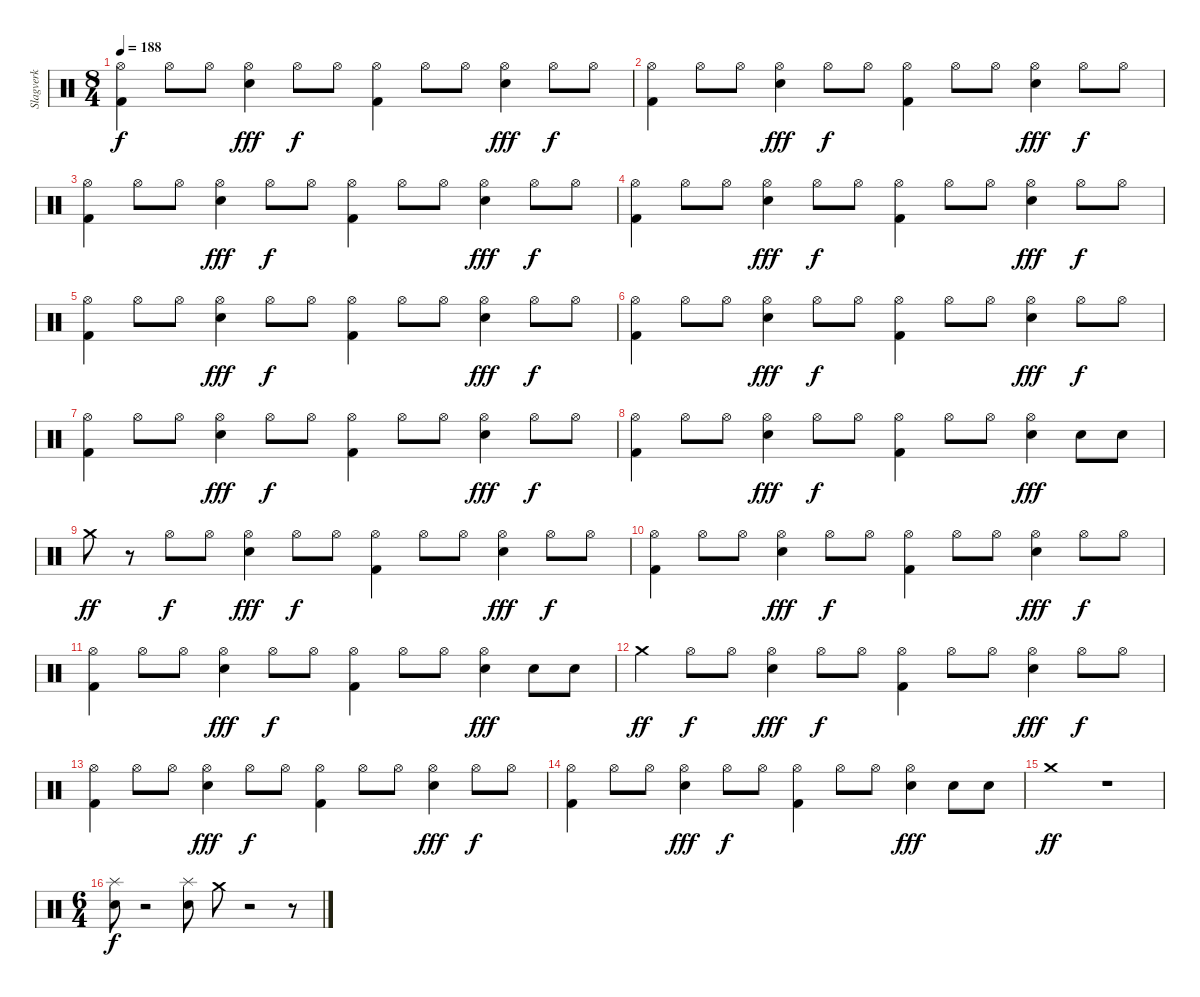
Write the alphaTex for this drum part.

\track ("Slagverk" "Slagverk") {instrument percussion}
\staff {score}
\articulation defaults
\ts (8 4)
\tempo 188
\clef neutral
\ks c
("Hi-Hat (open)" "Kick (hit) 2").4{dy f} "Hi-Hat (open)".8 "Hi-Hat (open)".8 ("Hi-Hat (open)" "Snare (hit) 2").4{dy fff} "Hi-Hat (open)".8{dy f} "Hi-Hat (open)".8 ("Hi-Hat (open)" "Kick (hit) 2").4 "Hi-Hat (open)".8 "Hi-Hat (open)".8 ("Hi-Hat (open)" "Snare (hit) 2").4{dy fff} "Hi-Hat (open)".8{dy f} "Hi-Hat (open)".8 |
("Hi-Hat (open)" "Kick (hit) 2").4 "Hi-Hat (open)".8 "Hi-Hat (open)".8 ("Hi-Hat (open)" "Snare (hit) 2").4{dy fff} "Hi-Hat (open)".8{dy f} "Hi-Hat (open)".8 ("Hi-Hat (open)" "Kick (hit) 2").4 "Hi-Hat (open)".8 "Hi-Hat (open)".8 ("Hi-Hat (open)" "Snare (hit) 2").4{dy fff} "Hi-Hat (open)".8{dy f} "Hi-Hat (open)".8 |
("Hi-Hat (open)" "Kick (hit) 2").4 "Hi-Hat (open)".8 "Hi-Hat (open)".8 ("Hi-Hat (open)" "Snare (hit) 2").4{dy fff} "Hi-Hat (open)".8{dy f} "Hi-Hat (open)".8 ("Hi-Hat (open)" "Kick (hit) 2").4 "Hi-Hat (open)".8 "Hi-Hat (open)".8 ("Hi-Hat (open)" "Snare (hit) 2").4{dy fff} "Hi-Hat (open)".8{dy f} "Hi-Hat (open)".8 |
("Hi-Hat (open)" "Kick (hit) 2").4 "Hi-Hat (open)".8 "Hi-Hat (open)".8 ("Hi-Hat (open)" "Snare (hit) 2").4{dy fff} "Hi-Hat (open)".8{dy f} "Hi-Hat (open)".8 ("Hi-Hat (open)" "Kick (hit) 2").4 "Hi-Hat (open)".8 "Hi-Hat (open)".8 ("Hi-Hat (open)" "Snare (hit) 2").4{dy fff} "Hi-Hat (open)".8{dy f} "Hi-Hat (open)".8 |
("Hi-Hat (open)" "Kick (hit) 2").4 "Hi-Hat (open)".8 "Hi-Hat (open)".8 ("Hi-Hat (open)" "Snare (hit) 2").4{dy fff} "Hi-Hat (open)".8{dy f} "Hi-Hat (open)".8 ("Hi-Hat (open)" "Kick (hit) 2").4 "Hi-Hat (open)".8 "Hi-Hat (open)".8 ("Hi-Hat (open)" "Snare (hit) 2").4{dy fff} "Hi-Hat (open)".8{dy f} "Hi-Hat (open)".8 |
("Hi-Hat (open)" "Kick (hit) 2").4 "Hi-Hat (open)".8 "Hi-Hat (open)".8 ("Hi-Hat (open)" "Snare (hit) 2").4{dy fff} "Hi-Hat (open)".8{dy f} "Hi-Hat (open)".8 ("Hi-Hat (open)" "Kick (hit) 2").4 "Hi-Hat (open)".8 "Hi-Hat (open)".8 ("Hi-Hat (open)" "Snare (hit) 2").4{dy fff} "Hi-Hat (open)".8{dy f} "Hi-Hat (open)".8 |
("Hi-Hat (open)" "Kick (hit) 2").4 "Hi-Hat (open)".8 "Hi-Hat (open)".8 ("Hi-Hat (open)" "Snare (hit) 2").4{dy fff} "Hi-Hat (open)".8{dy f} "Hi-Hat (open)".8 ("Hi-Hat (open)" "Kick (hit) 2").4 "Hi-Hat (open)".8 "Hi-Hat (open)".8 ("Hi-Hat (open)" "Snare (hit) 2").4{dy fff} "Hi-Hat (open)".8{dy f} "Hi-Hat (open)".8 |
("Hi-Hat (open)" "Kick (hit) 2").4 "Hi-Hat (open)".8 "Hi-Hat (open)".8 ("Hi-Hat (open)" "Snare (hit) 2").4{dy fff} "Hi-Hat (open)".8{dy f} "Hi-Hat (open)".8 ("Hi-Hat (open)" "Kick (hit) 2").4 "Hi-Hat (open)".8 "Hi-Hat (open)".8 ("Hi-Hat (open)" "Snare (hit) 2").4{dy fff} "Snare (hit) 2".8 "Snare (hit) 2".8 |
"Crash medium (hit)".8{dy ff} r.8 "Hi-Hat (open)".8{dy f} "Hi-Hat (open)".8 ("Hi-Hat (open)" "Snare (hit) 2").4{dy fff} "Hi-Hat (open)".8{dy f} "Hi-Hat (open)".8 ("Hi-Hat (open)" "Kick (hit) 2").4 "Hi-Hat (open)".8 "Hi-Hat (open)".8 ("Hi-Hat (open)" "Snare (hit) 2").4{dy fff} "Hi-Hat (open)".8{dy f} "Hi-Hat (open)".8 |
("Hi-Hat (open)" "Kick (hit) 2").4 "Hi-Hat (open)".8 "Hi-Hat (open)".8 ("Hi-Hat (open)" "Snare (hit) 2").4{dy fff} "Hi-Hat (open)".8{dy f} "Hi-Hat (open)".8 ("Hi-Hat (open)" "Kick (hit) 2").4 "Hi-Hat (open)".8 "Hi-Hat (open)".8 ("Hi-Hat (open)" "Snare (hit) 2").4{dy fff} "Hi-Hat (open)".8{dy f} "Hi-Hat (open)".8 |
("Hi-Hat (open)" "Kick (hit) 2").4 "Hi-Hat (open)".8 "Hi-Hat (open)".8 ("Hi-Hat (open)" "Snare (hit) 2").4{dy fff} "Hi-Hat (open)".8{dy f} "Hi-Hat (open)".8 ("Hi-Hat (open)" "Kick (hit) 2").4 "Hi-Hat (open)".8 "Hi-Hat (open)".8 ("Hi-Hat (open)" "Snare (hit) 2").4{dy fff} "Snare (hit) 2".8 "Snare (hit) 2".8 |
"Crash medium (hit)".4{dy ff} "Hi-Hat (open)".8{dy f} "Hi-Hat (open)".8 ("Hi-Hat (open)" "Snare (hit) 2").4{dy fff} "Hi-Hat (open)".8{dy f} "Hi-Hat (open)".8 ("Hi-Hat (open)" "Kick (hit) 2").4 "Hi-Hat (open)".8 "Hi-Hat (open)".8 ("Hi-Hat (open)" "Snare (hit) 2").4{dy fff} "Hi-Hat (open)".8{dy f} "Hi-Hat (open)".8 |
("Hi-Hat (open)" "Kick (hit) 2").4 "Hi-Hat (open)".8 "Hi-Hat (open)".8 ("Hi-Hat (open)" "Snare (hit) 2").4{dy fff} "Hi-Hat (open)".8{dy f} "Hi-Hat (open)".8 ("Hi-Hat (open)" "Kick (hit) 2").4 "Hi-Hat (open)".8 "Hi-Hat (open)".8 ("Hi-Hat (open)" "Snare (hit) 2").4{dy fff} "Hi-Hat (open)".8{dy f} "Hi-Hat (open)".8 |
("Hi-Hat (open)" "Kick (hit) 2").4 "Hi-Hat (open)".8 "Hi-Hat (open)".8 ("Hi-Hat (open)" "Snare (hit) 2").4{dy fff} "Hi-Hat (open)".8{dy f} "Hi-Hat (open)".8 ("Hi-Hat (open)" "Kick (hit) 2").4 "Hi-Hat (open)".8 "Hi-Hat (open)".8 ("Hi-Hat (open)" "Snare (hit) 2").4{dy fff} "Snare (hit) 2".8 "Snare (hit) 2".8 |
"Crash medium (hit)".1{dy ff} r.1 |
\ts (6 4)
("Splash (hit)" "Snare (hit) 2").8{dy f} r.2 ("Splash (hit)" "Snare (hit) 2").8 "Crash medium (hit)".8 r.2 r.8
